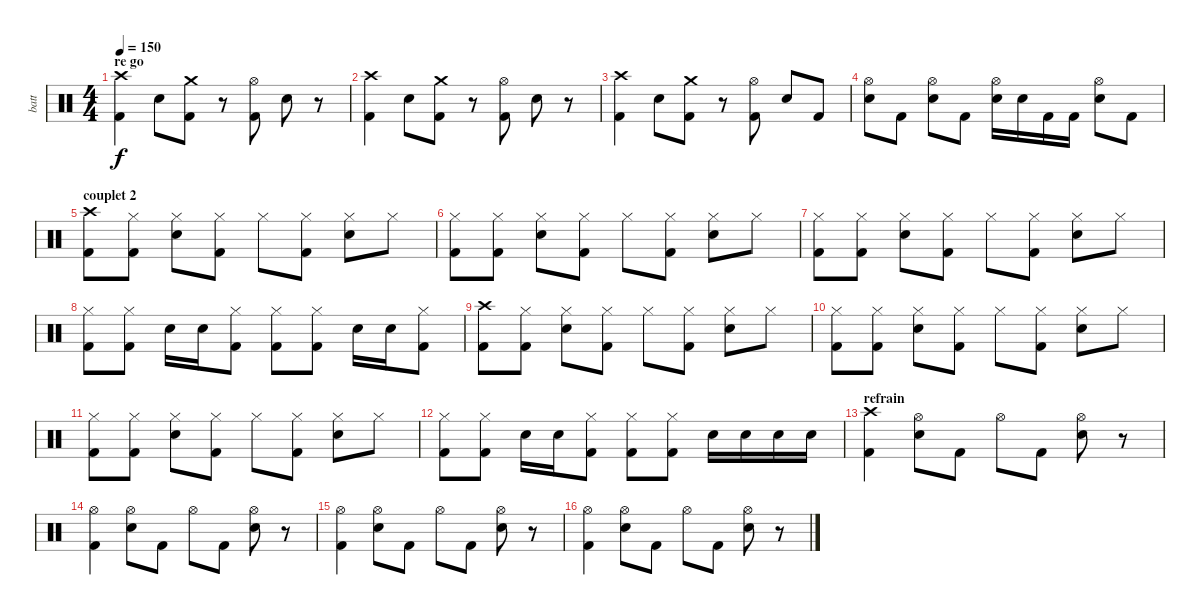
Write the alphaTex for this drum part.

\track ("batt" "batt") {instrument percussion}
\staff {score}
\articulation defaults
\ts (4 4)
\section ("" "re go")
\tempo 150
\clef neutral
\ks c
("Crash high (hit)" "Kick (hit) 2").4{dy f} "Electric Snare (hit)".8 ("Crash medium (hit)" "Kick (hit) 2").8 r.8 ("Hi-Hat (open)" "Kick (hit) 2").8 "Electric Snare (hit)".8 r.8 |
("Crash high (hit)" "Kick (hit) 2").4 "Electric Snare (hit)".8 ("Crash medium (hit)" "Kick (hit) 2").8 r.8 ("Hi-Hat (open)" "Kick (hit) 2").8 "Electric Snare (hit)".8 r.8 |
("Crash high (hit)" "Kick (hit) 2").4 "Electric Snare (hit)".8 ("Crash medium (hit)" "Kick (hit) 2").8 r.8 ("Hi-Hat (open)" "Kick (hit) 2").8 "Electric Snare (hit)".8 "Kick (hit) 2".8 |
("Hi-Hat (open)" "Electric Snare (hit)").8 "Kick (hit) 2".8 ("Hi-Hat (open)" "Electric Snare (hit)").8 "Kick (hit) 2".8 ("Hi-Hat (open)" "Electric Snare (hit)").16 "Electric Snare (hit)".16 "Kick (hit) 2".16 "Kick (hit) 2".16 ("Hi-Hat (open)" "Electric Snare (hit)").8 "Kick (hit) 2".8 |
\section ("" "couplet 2")
("Crash high (hit)" "Kick (hit) 2").8 ("Hi-Hat (closed)" "Kick (hit) 2").8 ("Hi-Hat (closed)" "Electric Snare (hit)").8 ("Hi-Hat (closed)" "Kick (hit) 2").8 "Hi-Hat (closed)".8 ("Hi-Hat (closed)" "Kick (hit) 2").8 ("Hi-Hat (closed)" "Electric Snare (hit)").8 "Hi-Hat (closed)".8 |
("Hi-Hat (closed)" "Kick (hit) 2").8 ("Hi-Hat (closed)" "Kick (hit) 2").8 ("Hi-Hat (closed)" "Electric Snare (hit)").8 ("Hi-Hat (closed)" "Kick (hit) 2").8 "Hi-Hat (closed)".8 ("Hi-Hat (closed)" "Kick (hit) 2").8 ("Hi-Hat (closed)" "Electric Snare (hit)").8 "Hi-Hat (closed)".8 |
("Hi-Hat (closed)" "Kick (hit) 2").8 ("Hi-Hat (closed)" "Kick (hit) 2").8 ("Hi-Hat (closed)" "Electric Snare (hit)").8 ("Hi-Hat (closed)" "Kick (hit) 2").8 "Hi-Hat (closed)".8 ("Hi-Hat (closed)" "Kick (hit) 2").8 ("Hi-Hat (closed)" "Electric Snare (hit)").8 "Hi-Hat (closed)".8 |
("Hi-Hat (closed)" "Kick (hit) 2").8 ("Hi-Hat (closed)" "Kick (hit) 2").8 "Electric Snare (hit)".16 "Electric Snare (hit)".16 ("Hi-Hat (closed)" "Kick (hit) 2").8 ("Hi-Hat (closed)" "Kick (hit) 2").8 ("Hi-Hat (closed)" "Kick (hit) 2").8 "Electric Snare (hit)".16 "Electric Snare (hit)".16 ("Hi-Hat (closed)" "Kick (hit) 2").8 |
("Crash high (hit)" "Kick (hit) 2").8 ("Hi-Hat (closed)" "Kick (hit) 2").8 ("Hi-Hat (closed)" "Electric Snare (hit)").8 ("Hi-Hat (closed)" "Kick (hit) 2").8 "Hi-Hat (closed)".8 ("Hi-Hat (closed)" "Kick (hit) 2").8 ("Hi-Hat (closed)" "Electric Snare (hit)").8 "Hi-Hat (closed)".8 |
("Hi-Hat (closed)" "Kick (hit) 2").8 ("Hi-Hat (closed)" "Kick (hit) 2").8 ("Hi-Hat (closed)" "Electric Snare (hit)").8 ("Hi-Hat (closed)" "Kick (hit) 2").8 "Hi-Hat (closed)".8 ("Hi-Hat (closed)" "Kick (hit) 2").8 ("Hi-Hat (closed)" "Electric Snare (hit)").8 "Hi-Hat (closed)".8 |
("Hi-Hat (closed)" "Kick (hit) 2").8 ("Hi-Hat (closed)" "Kick (hit) 2").8 ("Hi-Hat (closed)" "Electric Snare (hit)").8 ("Hi-Hat (closed)" "Kick (hit) 2").8 "Hi-Hat (closed)".8 ("Hi-Hat (closed)" "Kick (hit) 2").8 ("Hi-Hat (closed)" "Electric Snare (hit)").8 "Hi-Hat (closed)".8 |
("Hi-Hat (closed)" "Kick (hit) 2").8 ("Hi-Hat (closed)" "Kick (hit) 2").8 "Electric Snare (hit)".16 "Electric Snare (hit)".16 ("Hi-Hat (closed)" "Kick (hit) 2").8 ("Hi-Hat (closed)" "Kick (hit) 2").8 ("Hi-Hat (closed)" "Kick (hit) 2").8 "Electric Snare (hit)".16 "Electric Snare (hit)".16 "Electric Snare (hit)".16 "Electric Snare (hit)".16 |
\section ("" "refrain")
("Crash high (hit)" "Kick (hit) 2").4 ("Hi-Hat (open)" "Electric Snare (hit)").8 "Kick (hit) 2".8 "Hi-Hat (open)".8 "Kick (hit) 2".8 ("Hi-Hat (open)" "Electric Snare (hit)").8 r.8 |
("Hi-Hat (open)" "Kick (hit) 2").4 ("Hi-Hat (open)" "Electric Snare (hit)").8 "Kick (hit) 2".8 "Hi-Hat (open)".8 "Kick (hit) 2".8 ("Hi-Hat (open)" "Electric Snare (hit)").8 r.8 |
("Hi-Hat (open)" "Kick (hit) 2").4 ("Hi-Hat (open)" "Electric Snare (hit)").8 "Kick (hit) 2".8 "Hi-Hat (open)".8 "Kick (hit) 2".8 ("Hi-Hat (open)" "Electric Snare (hit)").8 r.8 |
("Hi-Hat (open)" "Kick (hit) 2").4 ("Hi-Hat (open)" "Electric Snare (hit)").8 "Kick (hit) 2".8 "Hi-Hat (open)".8 "Kick (hit) 2".8 ("Hi-Hat (open)" "Electric Snare (hit)").8 r.8
